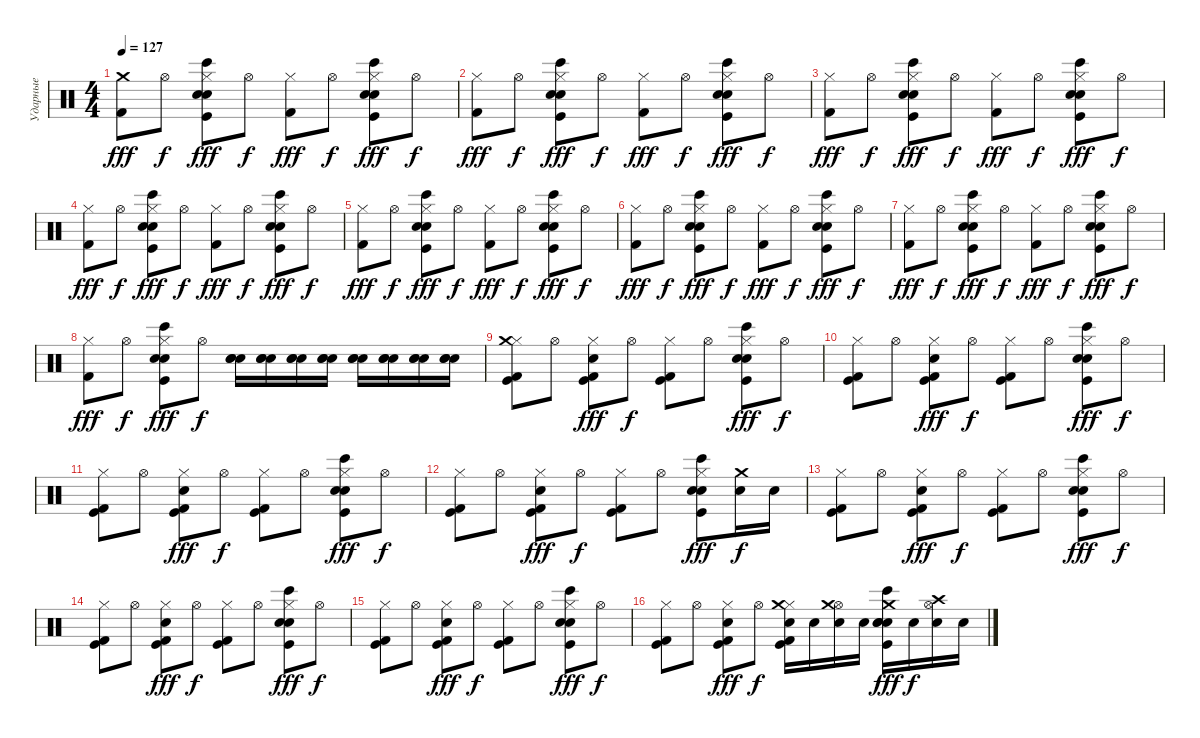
\track ("Ударные" "Ударные") {instrument percussion}
\staff {score}
\articulation defaults
\ts (4 4)
\tempo 127
\clef neutral
\ks c
("Kick (hit) 2" "Crash medium (hit)").8{dy fff} "Hi-Hat (open)".8{dy f} ("Hi-Hat (closed)" "Hand Clap (hit)" "Kick (hit)" "Snare (hit) 2" "Bongo High (hit)").8{dy fff} "Hi-Hat (open)".8{dy f} ("Kick (hit) 2" "Hi-Hat (closed)").8{dy fff} "Hi-Hat (open)".8{dy f} ("Hi-Hat (closed)" "Hand Clap (hit)" "Kick (hit)" "Snare (hit) 2" "Bongo High (hit)").8{dy fff} "Hi-Hat (open)".8{dy f} |
("Kick (hit) 2" "Hi-Hat (closed)").8{dy fff} "Hi-Hat (open)".8{dy f} ("Hi-Hat (closed)" "Hand Clap (hit)" "Kick (hit)" "Snare (hit) 2" "Bongo High (hit)").8{dy fff} "Hi-Hat (open)".8{dy f} ("Kick (hit) 2" "Hi-Hat (closed)").8{dy fff} "Hi-Hat (open)".8{dy f} ("Hi-Hat (closed)" "Hand Clap (hit)" "Kick (hit)" "Snare (hit) 2" "Bongo High (hit)").8{dy fff} "Hi-Hat (open)".8{dy f} |
("Kick (hit) 2" "Hi-Hat (closed)").8{dy fff} "Hi-Hat (open)".8{dy f} ("Hi-Hat (closed)" "Hand Clap (hit)" "Kick (hit)" "Snare (hit) 2" "Bongo High (hit)").8{dy fff} "Hi-Hat (open)".8{dy f} ("Kick (hit) 2" "Hi-Hat (closed)").8{dy fff} "Hi-Hat (open)".8{dy f} ("Hi-Hat (closed)" "Hand Clap (hit)" "Kick (hit)" "Snare (hit) 2" "Bongo High (hit)").8{dy fff} "Hi-Hat (open)".8{dy f} |
("Kick (hit) 2" "Hi-Hat (closed)").8{dy fff} "Hi-Hat (open)".8{dy f} ("Hi-Hat (closed)" "Hand Clap (hit)" "Kick (hit)" "Snare (hit) 2" "Bongo High (hit)").8{dy fff} "Hi-Hat (open)".8{dy f} ("Kick (hit) 2" "Hi-Hat (closed)").8{dy fff} "Hi-Hat (open)".8{dy f} ("Hi-Hat (closed)" "Hand Clap (hit)" "Kick (hit)" "Snare (hit) 2" "Bongo High (hit)").8{dy fff} "Hi-Hat (open)".8{dy f} |
("Kick (hit) 2" "Hi-Hat (closed)").8{dy fff} "Hi-Hat (open)".8{dy f} ("Hi-Hat (closed)" "Hand Clap (hit)" "Kick (hit)" "Snare (hit) 2" "Bongo High (hit)").8{dy fff} "Hi-Hat (open)".8{dy f} ("Kick (hit) 2" "Hi-Hat (closed)").8{dy fff} "Hi-Hat (open)".8{dy f} ("Hi-Hat (closed)" "Hand Clap (hit)" "Kick (hit)" "Snare (hit) 2" "Bongo High (hit)").8{dy fff} "Hi-Hat (open)".8{dy f} |
("Kick (hit) 2" "Hi-Hat (closed)").8{dy fff} "Hi-Hat (open)".8{dy f} ("Hi-Hat (closed)" "Hand Clap (hit)" "Kick (hit)" "Snare (hit) 2" "Bongo High (hit)").8{dy fff} "Hi-Hat (open)".8{dy f} ("Kick (hit) 2" "Hi-Hat (closed)").8{dy fff} "Hi-Hat (open)".8{dy f} ("Hi-Hat (closed)" "Hand Clap (hit)" "Kick (hit)" "Snare (hit) 2" "Bongo High (hit)").8{dy fff} "Hi-Hat (open)".8{dy f} |
("Kick (hit) 2" "Hi-Hat (closed)").8{dy fff} "Hi-Hat (open)".8{dy f} ("Hi-Hat (closed)" "Hand Clap (hit)" "Kick (hit)" "Snare (hit) 2" "Bongo High (hit)").8{dy fff} "Hi-Hat (open)".8{dy f} ("Kick (hit) 2" "Hi-Hat (closed)").8{dy fff} "Hi-Hat (open)".8{dy f} ("Hi-Hat (closed)" "Hand Clap (hit)" "Kick (hit)" "Snare (hit) 2" "Bongo High (hit)").8{dy fff} "Hi-Hat (open)".8{dy f} |
("Kick (hit) 2" "Hi-Hat (closed)").8{dy fff} "Hi-Hat (open)".8{dy f} ("Hi-Hat (closed)" "Hand Clap (hit)" "Kick (hit)" "Snare (hit) 2" "Bongo High (hit)").8{dy fff} "Hi-Hat (open)".8{dy f} ("Hand Clap (hit)" "Hand Clap (hit)" "Snare (hit) 2").16 ("Hand Clap (hit)" "Hand Clap (hit)" "Snare (hit) 2").16 ("Hand Clap (hit)" "Hand Clap (hit)" "Snare (hit) 2").16 ("Hand Clap (hit)" "Hand Clap (hit)" "Snare (hit) 2").16 ("Hand Clap (hit)" "Hand Clap (hit)" "Snare (hit) 2").16 ("Hand Clap (hit)" "Hand Clap (hit)" "Snare (hit) 2").16 ("Hand Clap (hit)" "Hand Clap (hit)" "Snare (hit) 2").16 ("Hand Clap (hit)" "Hand Clap (hit)" "Snare (hit) 2").16 |
("Kick (hit) 2" "Hi-Hat (closed)" "Kick (hit)" "Crash medium (hit)").8 "Hi-Hat (open)".8 ("Kick (hit) 2" "Hi-Hat (closed)" "Kick (hit)" "Hand Clap (hit)").8{dy fff} "Hi-Hat (open)".8{dy f} ("Kick (hit) 2" "Hi-Hat (closed)" "Kick (hit)").8 "Hi-Hat (open)".8 ("Hi-Hat (closed)" "Hand Clap (hit)" "Kick (hit)" "Snare (hit) 2" "Bongo High (hit)").8{dy fff} "Hi-Hat (open)".8{dy f} |
("Kick (hit) 2" "Hi-Hat (closed)" "Kick (hit)").8 "Hi-Hat (open)".8 ("Kick (hit) 2" "Hi-Hat (closed)" "Kick (hit)" "Hand Clap (hit)").8{dy fff} "Hi-Hat (open)".8{dy f} ("Kick (hit) 2" "Hi-Hat (closed)" "Kick (hit)").8 "Hi-Hat (open)".8 ("Hi-Hat (closed)" "Hand Clap (hit)" "Kick (hit)" "Snare (hit) 2" "Bongo High (hit)").8{dy fff} "Hi-Hat (open)".8{dy f} |
("Kick (hit) 2" "Hi-Hat (closed)" "Kick (hit)").8 "Hi-Hat (open)".8 ("Kick (hit) 2" "Hi-Hat (closed)" "Kick (hit)" "Hand Clap (hit)").8{dy fff} "Hi-Hat (open)".8{dy f} ("Kick (hit) 2" "Hi-Hat (closed)" "Kick (hit)").8 "Hi-Hat (open)".8 ("Hi-Hat (closed)" "Hand Clap (hit)" "Kick (hit)" "Snare (hit) 2" "Bongo High (hit)").8{dy fff} "Hi-Hat (open)".8{dy f} |
("Kick (hit) 2" "Hi-Hat (closed)" "Kick (hit)").8 "Hi-Hat (open)".8 ("Kick (hit) 2" "Hi-Hat (closed)" "Kick (hit)" "Hand Clap (hit)").8{dy fff} "Hi-Hat (open)".8{dy f} ("Kick (hit) 2" "Hi-Hat (closed)" "Kick (hit)").8 "Hi-Hat (open)".8 ("Hi-Hat (closed)" "Hand Clap (hit)" "Kick (hit)" "Snare (hit) 2" "Bongo High (hit)").8{dy fff} ("Electric Snare (hit)" "Crash medium (hit)").16{dy f} "Electric Snare (hit)".16 |
("Kick (hit) 2" "Hi-Hat (closed)" "Kick (hit)").8 "Hi-Hat (open)".8 ("Kick (hit) 2" "Hi-Hat (closed)" "Kick (hit)" "Hand Clap (hit)").8{dy fff} "Hi-Hat (open)".8{dy f} ("Kick (hit) 2" "Hi-Hat (closed)" "Kick (hit)").8 "Hi-Hat (open)".8 ("Hi-Hat (closed)" "Hand Clap (hit)" "Kick (hit)" "Snare (hit) 2" "Bongo High (hit)").8{dy fff} "Hi-Hat (open)".8{dy f} |
("Kick (hit) 2" "Hi-Hat (closed)" "Kick (hit)").8 "Hi-Hat (open)".8 ("Kick (hit) 2" "Hi-Hat (closed)" "Kick (hit)" "Hand Clap (hit)").8{dy fff} "Hi-Hat (open)".8{dy f} ("Kick (hit) 2" "Hi-Hat (closed)" "Kick (hit)").8 "Hi-Hat (open)".8 ("Hi-Hat (closed)" "Hand Clap (hit)" "Kick (hit)" "Snare (hit) 2" "Bongo High (hit)").8{dy fff} "Hi-Hat (open)".8{dy f} |
("Kick (hit) 2" "Hi-Hat (closed)" "Kick (hit)").8 "Hi-Hat (open)".8 ("Kick (hit) 2" "Hi-Hat (closed)" "Kick (hit)" "Hand Clap (hit)").8{dy fff} "Hi-Hat (open)".8{dy f} ("Kick (hit) 2" "Hi-Hat (closed)" "Kick (hit)").8 "Hi-Hat (open)".8 ("Hi-Hat (closed)" "Hand Clap (hit)" "Kick (hit)" "Snare (hit) 2" "Bongo High (hit)").8{dy fff} "Hi-Hat (open)".8{dy f} |
("Kick (hit) 2" "Hi-Hat (closed)" "Kick (hit)").8 "Hi-Hat (open)".8 ("Kick (hit) 2" "Hi-Hat (closed)" "Kick (hit)" "Hand Clap (hit)").8{dy fff} "Hi-Hat (open)".8{dy f} ("Kick (hit) 2" "Hi-Hat (closed)" "Kick (hit)" "Crash medium (hit)" "Electric Snare (hit)").16 "Electric Snare (hit)".16 ("Hi-Hat (open)" "Crash medium (hit)" "Electric Snare (hit)").16 "Electric Snare (hit)".16 ("Crash medium (hit)" "Hand Clap (hit)" "Kick (hit)" "Snare (hit) 2" "Bongo High (hit)" "Electric Snare (hit)").16{dy fff} "Electric Snare (hit)".16{dy f} ("Crash high (hit)" "Hi-Hat (open)" "Electric Snare (hit)").16 "Electric Snare (hit)".16
